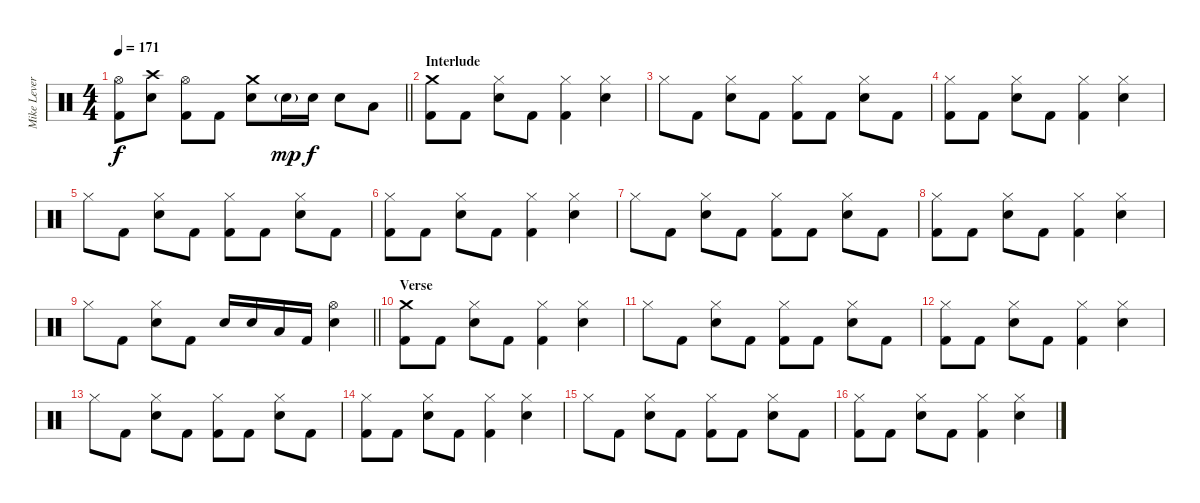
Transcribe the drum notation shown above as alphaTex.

\track ("Mike Leverence - Drums" "Mike Lever") {instrument percussion}
\staff {score}
\articulation defaults
\ts (4 4)
\tempo 171
\clef neutral
\barLineRight lightlight
\ks c
("Hi-Hat (open)" "Kick (hit) 2").8{dy f} ("Crash high (hit)" "Electric Snare (hit)").8 ("Hi-Hat (open)" "Kick (hit) 2").8 "Kick (hit) 2".8 ("Crash medium (hit)" "Electric Snare (hit)").8 "Electric Snare (hit)"{g}.16{dy mp} "Electric Snare (hit)".16{dy f} "Electric Snare (hit)".8 "Low Tom (hit)".8 |
\section ("" "Interlude")
("Crash medium (hit)" "Kick (hit) 2").8 "Kick (hit) 2".8 ("Hi-Hat (closed)" "Electric Snare (hit)").8 "Kick (hit) 2".8 ("Hi-Hat (closed)" "Kick (hit) 2").4 ("Hi-Hat (closed)" "Electric Snare (hit)").4 |
"Hi-Hat (closed)".8 "Kick (hit) 2".8 ("Hi-Hat (closed)" "Electric Snare (hit)").8 "Kick (hit) 2".8 ("Hi-Hat (closed)" "Kick (hit) 2").8 "Kick (hit) 2".8 ("Hi-Hat (closed)" "Electric Snare (hit)").8 "Kick (hit) 2".8 |
("Hi-Hat (closed)" "Kick (hit) 2").8 "Kick (hit) 2".8 ("Hi-Hat (closed)" "Electric Snare (hit)").8 "Kick (hit) 2".8 ("Hi-Hat (closed)" "Kick (hit) 2").4 ("Hi-Hat (closed)" "Electric Snare (hit)").4 |
"Hi-Hat (closed)".8 "Kick (hit) 2".8 ("Hi-Hat (closed)" "Electric Snare (hit)").8 "Kick (hit) 2".8 ("Hi-Hat (closed)" "Kick (hit) 2").8 "Kick (hit) 2".8 ("Hi-Hat (closed)" "Electric Snare (hit)").8 "Kick (hit) 2".8 |
("Hi-Hat (closed)" "Kick (hit) 2").8 "Kick (hit) 2".8 ("Hi-Hat (closed)" "Electric Snare (hit)").8 "Kick (hit) 2".8 ("Hi-Hat (closed)" "Kick (hit) 2").4 ("Hi-Hat (closed)" "Electric Snare (hit)").4 |
"Hi-Hat (closed)".8 "Kick (hit) 2".8 ("Hi-Hat (closed)" "Electric Snare (hit)").8 "Kick (hit) 2".8 ("Hi-Hat (closed)" "Kick (hit) 2").8 "Kick (hit) 2".8 ("Hi-Hat (closed)" "Electric Snare (hit)").8 "Kick (hit) 2".8 |
("Hi-Hat (closed)" "Kick (hit) 2").8 "Kick (hit) 2".8 ("Hi-Hat (closed)" "Electric Snare (hit)").8 "Kick (hit) 2".8 ("Hi-Hat (closed)" "Kick (hit) 2").4 ("Hi-Hat (closed)" "Electric Snare (hit)").4 |
\barLineRight lightlight "Hi-Hat (closed)".8 "Kick (hit) 2".8
("Hi-Hat (closed)" "Electric Snare (hit)").8 "Kick (hit) 2".8 "Electric Snare (hit)".16 "Electric Snare (hit)".16 "Low Tom (hit)".16 "Kick (hit) 2".16 ("Hi-Hat (open)" "Electric Snare (hit)").4 |
\section ("" "Verse")
("Crash medium (hit)" "Kick (hit) 2").8 "Kick (hit) 2".8 ("Hi-Hat (closed)" "Electric Snare (hit)").8 "Kick (hit) 2".8 ("Hi-Hat (closed)" "Kick (hit) 2").4 ("Hi-Hat (closed)" "Electric Snare (hit)").4 |
"Hi-Hat (closed)".8 "Kick (hit) 2".8 ("Hi-Hat (closed)" "Electric Snare (hit)").8 "Kick (hit) 2".8 ("Hi-Hat (closed)" "Kick (hit) 2").8 "Kick (hit) 2".8 ("Hi-Hat (closed)" "Electric Snare (hit)").8 "Kick (hit) 2".8 |
("Hi-Hat (closed)" "Kick (hit) 2").8 "Kick (hit) 2".8 ("Hi-Hat (closed)" "Electric Snare (hit)").8 "Kick (hit) 2".8 ("Hi-Hat (closed)" "Kick (hit) 2").4 ("Hi-Hat (closed)" "Electric Snare (hit)").4 |
"Hi-Hat (closed)".8 "Kick (hit) 2".8 ("Hi-Hat (closed)" "Electric Snare (hit)").8 "Kick (hit) 2".8 ("Hi-Hat (closed)" "Kick (hit) 2").8 "Kick (hit) 2".8 ("Hi-Hat (closed)" "Electric Snare (hit)").8 "Kick (hit) 2".8 |
("Hi-Hat (closed)" "Kick (hit) 2").8 "Kick (hit) 2".8 ("Hi-Hat (closed)" "Electric Snare (hit)").8 "Kick (hit) 2".8 ("Hi-Hat (closed)" "Kick (hit) 2").4 ("Hi-Hat (closed)" "Electric Snare (hit)").4 |
"Hi-Hat (closed)".8 "Kick (hit) 2".8 ("Hi-Hat (closed)" "Electric Snare (hit)").8 "Kick (hit) 2".8 ("Hi-Hat (closed)" "Kick (hit) 2").8 "Kick (hit) 2".8 ("Hi-Hat (closed)" "Electric Snare (hit)").8 "Kick (hit) 2".8 |
("Hi-Hat (closed)" "Kick (hit) 2").8 "Kick (hit) 2".8 ("Hi-Hat (closed)" "Electric Snare (hit)").8 "Kick (hit) 2".8 ("Hi-Hat (closed)" "Kick (hit) 2").4 ("Hi-Hat (closed)" "Electric Snare (hit)").4
